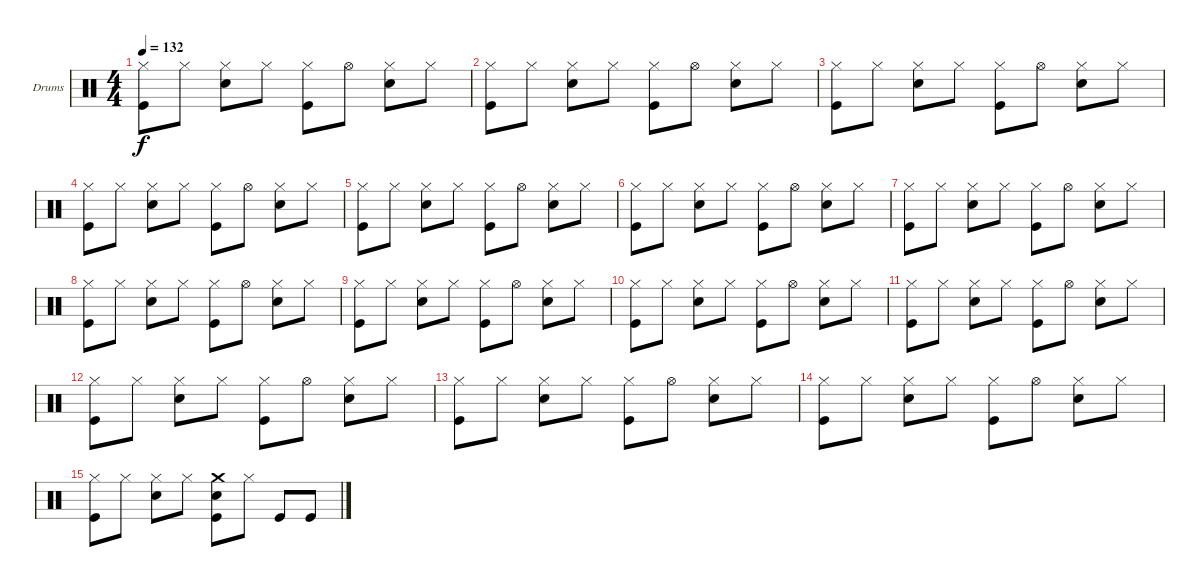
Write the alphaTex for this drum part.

\defaultSystemsLayout 4
\bracketExtendMode groupsimilarinstruments
\firstSystemTrackNameOrientation horizontal
\otherSystemsTrackNameOrientation horizontal
\track ("Fab Moretti" "Drums") {instrument percussion}
\staff {score}
\articulation defaults
\ts (4 4)
\tempo 132
\clef neutral
\ks c
("Hi-Hat (closed)" "Kick (hit)").8{dy f} "Hi-Hat (closed)".8 ("Hi-Hat (closed)" "Snare (hit) 2").8 "Hi-Hat (closed)".8 ("Hi-Hat (closed)" "Kick (hit)").8 "Hi-Hat (open)".8 ("Hi-Hat (closed)" "Snare (hit) 2").8 "Hi-Hat (closed)".8 |
("Hi-Hat (closed)" "Kick (hit)").8 "Hi-Hat (closed)".8 ("Hi-Hat (closed)" "Snare (hit) 2").8 "Hi-Hat (closed)".8 ("Hi-Hat (closed)" "Kick (hit)").8 "Hi-Hat (open)".8 ("Hi-Hat (closed)" "Snare (hit) 2").8 "Hi-Hat (closed)".8 |
("Hi-Hat (closed)" "Kick (hit)").8 "Hi-Hat (closed)".8 ("Hi-Hat (closed)" "Snare (hit) 2").8 "Hi-Hat (closed)".8 ("Hi-Hat (closed)" "Kick (hit)").8 "Hi-Hat (open)".8 ("Hi-Hat (closed)" "Snare (hit) 2").8 "Hi-Hat (closed)".8 |
("Hi-Hat (closed)" "Kick (hit)").8 "Hi-Hat (closed)".8 ("Hi-Hat (closed)" "Snare (hit) 2").8 "Hi-Hat (closed)".8 ("Hi-Hat (closed)" "Kick (hit)").8 "Hi-Hat (open)".8 ("Hi-Hat (closed)" "Snare (hit) 2").8 "Hi-Hat (closed)".8 |
("Hi-Hat (closed)" "Kick (hit)").8 "Hi-Hat (closed)".8 ("Hi-Hat (closed)" "Snare (hit) 2").8 "Hi-Hat (closed)".8 ("Hi-Hat (closed)" "Kick (hit)").8 "Hi-Hat (open)".8 ("Hi-Hat (closed)" "Snare (hit) 2").8 "Hi-Hat (closed)".8 |
("Hi-Hat (closed)" "Kick (hit)").8 "Hi-Hat (closed)".8 ("Hi-Hat (closed)" "Snare (hit) 2").8 "Hi-Hat (closed)".8 ("Hi-Hat (closed)" "Kick (hit)").8 "Hi-Hat (open)".8 ("Hi-Hat (closed)" "Snare (hit) 2").8 "Hi-Hat (closed)".8 |
("Hi-Hat (closed)" "Kick (hit)").8 "Hi-Hat (closed)".8 ("Hi-Hat (closed)" "Snare (hit) 2").8 "Hi-Hat (closed)".8 ("Hi-Hat (closed)" "Kick (hit)").8 "Hi-Hat (open)".8 ("Hi-Hat (closed)" "Snare (hit) 2").8 "Hi-Hat (closed)".8 |
("Hi-Hat (closed)" "Kick (hit)").8 "Hi-Hat (closed)".8 ("Hi-Hat (closed)" "Snare (hit) 2").8 "Hi-Hat (closed)".8 ("Hi-Hat (closed)" "Kick (hit)").8 "Hi-Hat (open)".8 ("Hi-Hat (closed)" "Snare (hit) 2").8 "Hi-Hat (closed)".8 |
("Hi-Hat (closed)" "Kick (hit)").8 "Hi-Hat (closed)".8 ("Hi-Hat (closed)" "Snare (hit) 2").8 "Hi-Hat (closed)".8 ("Hi-Hat (closed)" "Kick (hit)").8 "Hi-Hat (open)".8 ("Hi-Hat (closed)" "Snare (hit) 2").8 "Hi-Hat (closed)".8 |
("Hi-Hat (closed)" "Kick (hit)").8 "Hi-Hat (closed)".8 ("Hi-Hat (closed)" "Snare (hit) 2").8 "Hi-Hat (closed)".8 ("Hi-Hat (closed)" "Kick (hit)").8 "Hi-Hat (open)".8 ("Hi-Hat (closed)" "Snare (hit) 2").8 "Hi-Hat (closed)".8 |
("Hi-Hat (closed)" "Kick (hit)").8 "Hi-Hat (closed)".8 ("Hi-Hat (closed)" "Snare (hit) 2").8 "Hi-Hat (closed)".8 ("Hi-Hat (closed)" "Kick (hit)").8 "Hi-Hat (open)".8 ("Hi-Hat (closed)" "Snare (hit) 2").8 "Hi-Hat (closed)".8 |
("Hi-Hat (closed)" "Kick (hit)").8 "Hi-Hat (closed)".8 ("Hi-Hat (closed)" "Snare (hit) 2").8 "Hi-Hat (closed)".8 ("Hi-Hat (closed)" "Kick (hit)").8 "Hi-Hat (open)".8 ("Hi-Hat (closed)" "Snare (hit) 2").8 "Hi-Hat (closed)".8 |
("Hi-Hat (closed)" "Kick (hit)").8 "Hi-Hat (closed)".8 ("Hi-Hat (closed)" "Snare (hit) 2").8 "Hi-Hat (closed)".8 ("Hi-Hat (closed)" "Kick (hit)").8 "Hi-Hat (open)".8 ("Hi-Hat (closed)" "Snare (hit) 2").8 "Hi-Hat (closed)".8 |
("Hi-Hat (closed)" "Kick (hit)").8 "Hi-Hat (closed)".8 ("Hi-Hat (closed)" "Snare (hit) 2").8 "Hi-Hat (closed)".8 ("Hi-Hat (closed)" "Kick (hit)").8 "Hi-Hat (open)".8 ("Hi-Hat (closed)" "Snare (hit) 2").8 "Hi-Hat (closed)".8 |
("Hi-Hat (closed)" "Kick (hit)").8 "Hi-Hat (closed)".8 ("Hi-Hat (closed)" "Snare (hit) 2").8 "Hi-Hat (closed)".8 ("Crash medium (hit)" "Snare (hit) 2" "Kick (hit)").8 "Hi-Hat (closed)".8 "Kick (hit)".8 "Kick (hit)".8
